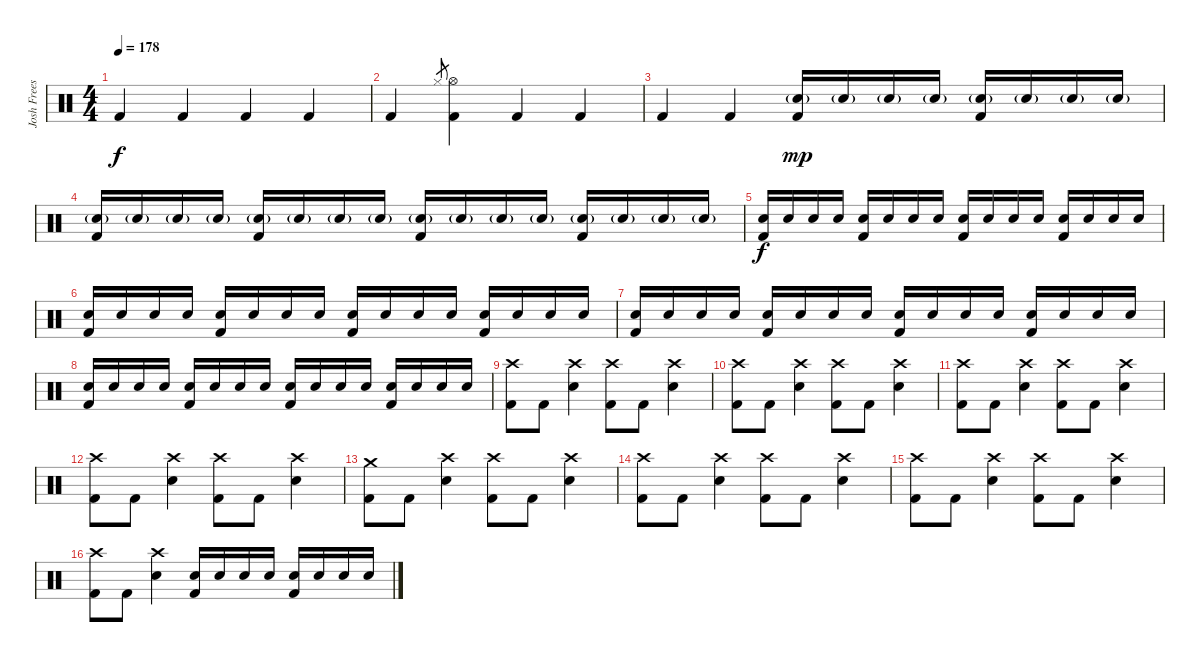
\track ("Josh Freese" "Josh Frees") {instrument percussion}
\staff {score}
\articulation defaults
\ts (4 4)
\tempo 178
\clef neutral
\ks c "Kick (hit) 2".4{dy f} "Kick (hit) 2".4 "Kick (hit) 2".4 "Kick (hit) 2".4
|
"Kick (hit) 2".4 "Hi-Hat (closed)"{h}.8{gr} ("Hi-Hat (open)" "Kick (hit) 2").4 "Kick (hit) 2".4 "Kick (hit) 2".4 |
"Kick (hit) 2".4 "Kick (hit) 2".4 ("Electric Snare (hit)"{g} "Kick (hit) 2").16{dy mp} "Electric Snare (hit)"{g}.16 "Electric Snare (hit)"{g}.16 "Electric Snare (hit)"{g}.16 ("Electric Snare (hit)"{g} "Kick (hit) 2").16 "Electric Snare (hit)"{g}.16 "Electric Snare (hit)"{g}.16 "Electric Snare (hit)"{g}.16 |
("Electric Snare (hit)"{g} "Kick (hit) 2").16 "Electric Snare (hit)"{g}.16 "Electric Snare (hit)"{g}.16 "Electric Snare (hit)"{g}.16 ("Electric Snare (hit)"{g} "Kick (hit) 2").16 "Electric Snare (hit)"{g}.16 "Electric Snare (hit)"{g}.16 "Electric Snare (hit)"{g}.16 ("Electric Snare (hit)"{g} "Kick (hit) 2").16 "Electric Snare (hit)"{g}.16 "Electric Snare (hit)"{g}.16 "Electric Snare (hit)"{g}.16 ("Electric Snare (hit)"{g} "Kick (hit) 2").16 "Electric Snare (hit)"{g}.16 "Electric Snare (hit)"{g}.16 "Electric Snare (hit)"{g}.16 |
("Electric Snare (hit)" "Kick (hit) 2").16{dy f volume 5} "Electric Snare (hit)".16{volume 13} "Electric Snare (hit)".16 "Electric Snare (hit)".16 ("Electric Snare (hit)" "Kick (hit) 2").16 "Electric Snare (hit)".16 "Electric Snare (hit)".16 "Electric Snare (hit)".16 ("Electric Snare (hit)" "Kick (hit) 2").16 "Electric Snare (hit)".16 "Electric Snare (hit)".16 "Electric Snare (hit)".16 ("Electric Snare (hit)" "Kick (hit) 2").16 "Electric Snare (hit)".16 "Electric Snare (hit)".16 "Electric Snare (hit)".16 |
("Electric Snare (hit)" "Kick (hit) 2").16 "Electric Snare (hit)".16 "Electric Snare (hit)".16 "Electric Snare (hit)".16 ("Electric Snare (hit)" "Kick (hit) 2").16 "Electric Snare (hit)".16 "Electric Snare (hit)".16 "Electric Snare (hit)".16 ("Electric Snare (hit)" "Kick (hit) 2").16 "Electric Snare (hit)".16 "Electric Snare (hit)".16 "Electric Snare (hit)".16 ("Electric Snare (hit)" "Kick (hit) 2").16 "Electric Snare (hit)".16 "Electric Snare (hit)".16 "Electric Snare (hit)".16 |
("Electric Snare (hit)" "Kick (hit) 2").16 "Electric Snare (hit)".16 "Electric Snare (hit)".16 "Electric Snare (hit)".16 ("Electric Snare (hit)" "Kick (hit) 2").16 "Electric Snare (hit)".16 "Electric Snare (hit)".16 "Electric Snare (hit)".16 ("Electric Snare (hit)" "Kick (hit) 2").16 "Electric Snare (hit)".16 "Electric Snare (hit)".16 "Electric Snare (hit)".16 ("Electric Snare (hit)" "Kick (hit) 2").16 "Electric Snare (hit)".16 "Electric Snare (hit)".16 "Electric Snare (hit)".16 |
("Electric Snare (hit)" "Kick (hit) 2").16 "Electric Snare (hit)".16 "Electric Snare (hit)".16 "Electric Snare (hit)".16 ("Electric Snare (hit)" "Kick (hit) 2").16 "Electric Snare (hit)".16 "Electric Snare (hit)".16 "Electric Snare (hit)".16 ("Electric Snare (hit)" "Kick (hit) 2").16 "Electric Snare (hit)".16 "Electric Snare (hit)".16 "Electric Snare (hit)".16 ("Electric Snare (hit)" "Kick (hit) 2").16 "Electric Snare (hit)".16 "Electric Snare (hit)".16 "Electric Snare (hit)".16 |
("Crash high (hit)" "Kick (hit) 2").8 "Kick (hit) 2".8 ("Crash high (hit)" "Electric Snare (hit)").4 ("Crash high (hit)" "Kick (hit) 2").8 "Kick (hit) 2".8 ("Crash high (hit)" "Electric Snare (hit)").4 |
("Crash high (hit)" "Kick (hit) 2").8 "Kick (hit) 2".8 ("Crash high (hit)" "Electric Snare (hit)").4 ("Crash high (hit)" "Kick (hit) 2").8 "Kick (hit) 2".8 ("Crash high (hit)" "Electric Snare (hit)").4 |
("Crash high (hit)" "Kick (hit) 2").8 "Kick (hit) 2".8 ("Crash high (hit)" "Electric Snare (hit)").4 ("Crash high (hit)" "Kick (hit) 2").8 "Kick (hit) 2".8 ("Crash high (hit)" "Electric Snare (hit)").4 |
("Crash high (hit)" "Kick (hit) 2").8 "Kick (hit) 2".8 ("Crash high (hit)" "Electric Snare (hit)").4 ("Crash high (hit)" "Kick (hit) 2").8 "Kick (hit) 2".8 ("Crash high (hit)" "Electric Snare (hit)").4 |
("Crash medium (hit)" "Kick (hit) 2").8 "Kick (hit) 2".8 ("Crash high (hit)" "Electric Snare (hit)").4 ("Crash high (hit)" "Kick (hit) 2").8 "Kick (hit) 2".8 ("Crash high (hit)" "Electric Snare (hit)").4 |
("Crash high (hit)" "Kick (hit) 2").8 "Kick (hit) 2".8 ("Crash high (hit)" "Electric Snare (hit)").4 ("Crash high (hit)" "Kick (hit) 2").8 "Kick (hit) 2".8 ("Crash high (hit)" "Electric Snare (hit)").4 |
("Crash high (hit)" "Kick (hit) 2").8 "Kick (hit) 2".8 ("Crash high (hit)" "Electric Snare (hit)").4 ("Crash high (hit)" "Kick (hit) 2").8 "Kick (hit) 2".8 ("Crash high (hit)" "Electric Snare (hit)").4 |
("Crash high (hit)" "Kick (hit) 2").8 "Kick (hit) 2".8 ("Crash high (hit)" "Electric Snare (hit)").4 ("Electric Snare (hit)" "Kick (hit) 2").16 "Electric Snare (hit)".16 "Electric Snare (hit)".16 "Electric Snare (hit)".16 ("Electric Snare (hit)" "Kick (hit) 2").16 "Electric Snare (hit)".16 "Electric Snare (hit)".16 "Electric Snare (hit)".16
